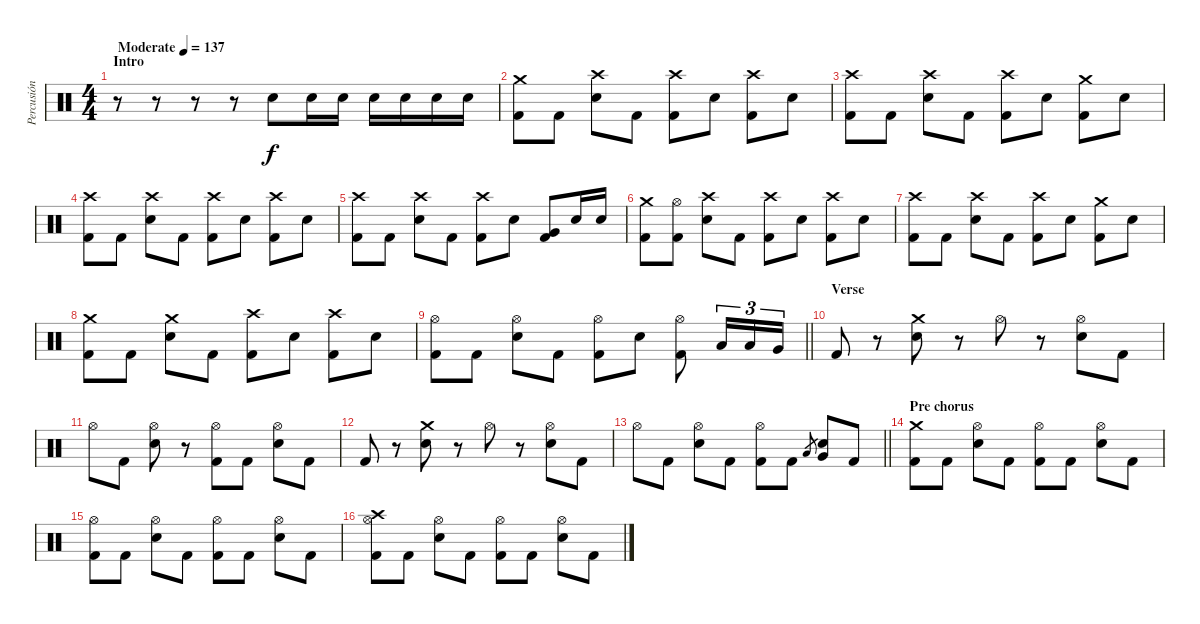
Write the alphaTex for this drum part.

\track ("Percusión" "Percusión") {instrument percussion}
\staff {score}
\articulation defaults
\ts (4 4)
\section ("" "Intro")
\tempo (137 "Moderate")
\clef neutral
\ks c
r.8{dy f} r.8 r.8 r.8 "Electric Snare (hit)".8 "Electric Snare (hit)".16 "Electric Snare (hit)".16 "Electric Snare (hit)".16 "Electric Snare (hit)".16 "Electric Snare (hit)".16 "Electric Snare (hit)".16 |
("Crash medium (hit)" "Kick (hit) 2").8 "Kick (hit) 2".8 ("Crash high (hit)" "Electric Snare (hit)").8 "Kick (hit) 2".8 ("Crash high (hit)" "Kick (hit) 2").8 "Electric Snare (hit)".8 ("Crash high (hit)" "Kick (hit) 2").8 "Electric Snare (hit)".8 |
("Crash high (hit)" "Kick (hit) 2").8 "Kick (hit) 2".8 ("Crash high (hit)" "Electric Snare (hit)").8 "Kick (hit) 2".8 ("Crash high (hit)" "Kick (hit) 2").8 "Electric Snare (hit)".8 ("Crash medium (hit)" "Kick (hit) 2").8 "Electric Snare (hit)".8 |
("Crash high (hit)" "Kick (hit) 2").8 "Kick (hit) 2".8 ("Crash high (hit)" "Electric Snare (hit)").8 "Kick (hit) 2".8 ("Crash high (hit)" "Kick (hit) 2").8 "Electric Snare (hit)".8 ("Crash high (hit)" "Kick (hit) 2").8 "Electric Snare (hit)".8 |
("Crash high (hit)" "Kick (hit) 2").8 "Kick (hit) 2".8 ("Crash high (hit)" "Electric Snare (hit)").8 "Kick (hit) 2".8 ("Crash high (hit)" "Kick (hit) 2").8 "Electric Snare (hit)".8 ("Very Low Tom (hit)" "Kick (hit) 2").8 "Electric Snare (hit)".16 "Electric Snare (hit)".16 |
("Crash medium (hit)" "Kick (hit) 2").8 ("Hi-Hat (open)" "Kick (hit) 2").8 ("Crash high (hit)" "Electric Snare (hit)").8 "Kick (hit) 2".8 ("Crash high (hit)" "Kick (hit) 2").8 "Electric Snare (hit)".8 ("Crash high (hit)" "Kick (hit) 2").8 "Electric Snare (hit)".8 |
("Crash high (hit)" "Kick (hit) 2").8 "Kick (hit) 2".8 ("Crash high (hit)" "Electric Snare (hit)").8 "Kick (hit) 2".8 ("Crash high (hit)" "Kick (hit) 2").8 "Electric Snare (hit)".8 ("Crash medium (hit)" "Kick (hit) 2").8 "Electric Snare (hit)".8 |
("Crash medium (hit)" "Kick (hit) 2").8 "Kick (hit) 2".8 ("Crash medium (hit)" "Electric Snare (hit)").8 "Kick (hit) 2".8 ("Crash high (hit)" "Kick (hit) 2").8 "Electric Snare (hit)".8 ("Crash high (hit)" "Kick (hit) 2").8 "Electric Snare (hit)".8 |
\barLineRight lightlight
("Hi-Hat (open)" "Kick (hit) 2").8 "Kick (hit) 2".8 ("Hi-Hat (open)" "Electric Snare (hit)").8 "Kick (hit) 2".8 ("Hi-Hat (open)" "Kick (hit) 2").8 "Electric Snare (hit)".8 ("Hi-Hat (open)" "Kick (hit) 2").8 "Low Tom (hit)".16{tu (3 2)} "Low Tom (hit)".16{tu (3 2)} "Very Low Tom (hit)".16{tu (3 2)} |
\section ("" "Verse")
"Kick (hit) 2".8 r.8 ("Crash medium (hit)" "Electric Snare (hit)").8 r.8 "Hi-Hat (open)".8 r.8 ("Hi-Hat (open)" "Electric Snare (hit)").8 "Kick (hit) 2".8 |
"Hi-Hat (open)".8 "Kick (hit) 2".8 ("Hi-Hat (open)" "Electric Snare (hit)").8 r.8 ("Hi-Hat (open)" "Kick (hit) 2").8 "Kick (hit) 2".8 ("Hi-Hat (open)" "Electric Snare (hit)").8 "Kick (hit) 2".8 |
"Kick (hit) 2".8 r.8 ("Crash medium (hit)" "Electric Snare (hit)").8 r.8 "Hi-Hat (open)".8 r.8 ("Hi-Hat (open)" "Electric Snare (hit)").8 "Kick (hit) 2".8 |
\barLineRight lightlight "Hi-Hat (open)".8 "Kick (hit) 2".8
("Hi-Hat (open)" "Electric Snare (hit)").8 "Kick (hit) 2".8 ("Hi-Hat (open)" "Kick (hit) 2").8 "Kick (hit) 2".8 "Low Floor Tom (hit)".8{gr} ("Very Low Tom (hit)" "Electric Snare (hit)").8 "Kick (hit) 2".8 |
\section ("" "Pre chorus")
("Crash medium (hit)" "Kick (hit) 2").8 "Kick (hit) 2".8 ("Hi-Hat (open)" "Electric Snare (hit)").8 "Kick (hit) 2".8 ("Hi-Hat (open)" "Kick (hit) 2").8 "Kick (hit) 2".8 ("Hi-Hat (open)" "Electric Snare (hit)").8 "Kick (hit) 2".8 |
("Hi-Hat (open)" "Kick (hit) 2").8 "Kick (hit) 2".8 ("Hi-Hat (open)" "Electric Snare (hit)").8 "Kick (hit) 2".8 ("Hi-Hat (open)" "Kick (hit) 2").8 "Kick (hit) 2".8 ("Hi-Hat (open)" "Electric Snare (hit)").8 "Kick (hit) 2".8 |
("Crash high (hit)" "Hi-Hat (open)" "Kick (hit) 2").8 "Kick (hit) 2".8 ("Hi-Hat (open)" "Electric Snare (hit)").8 "Kick (hit) 2".8 ("Hi-Hat (open)" "Kick (hit) 2").8 "Kick (hit) 2".8 ("Hi-Hat (open)" "Electric Snare (hit)").8 "Kick (hit) 2".8
